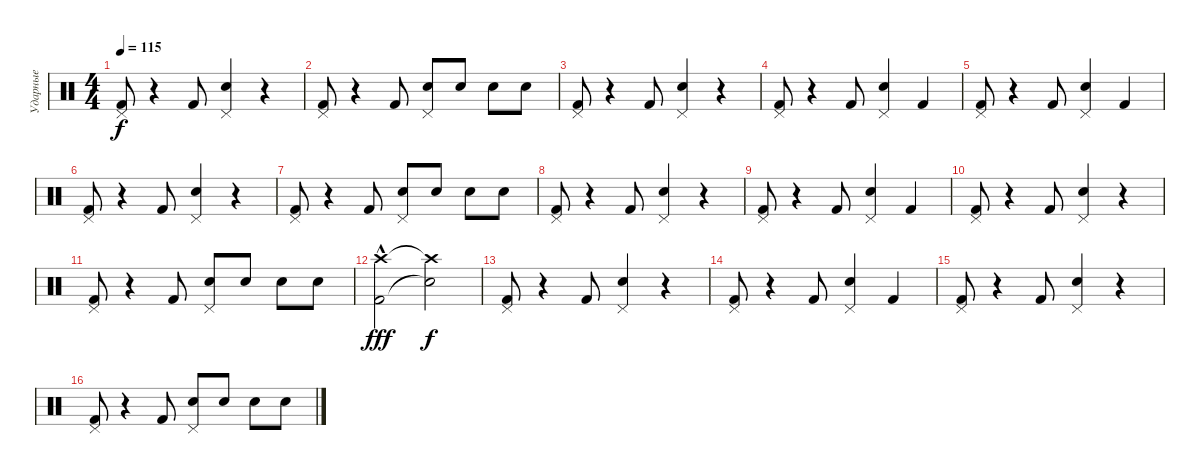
\track ("Ударные" "Ударные") {instrument percussion}
\staff {score}
\articulation defaults
\ts (4 4)
\tempo 115
\clef neutral
\ks c
("Kick (hit) 2" "Pedal Hi-Hat (hit)").8{dy f} r.4 "Kick (hit) 2".8 ("Snare (hit) 2" "Pedal Hi-Hat (hit)").4 r.4 |
("Kick (hit) 2" "Pedal Hi-Hat (hit)").8 r.4 "Kick (hit) 2".8 ("Snare (hit) 2" "Pedal Hi-Hat (hit)").8 "Snare (hit) 2".8 "Snare (hit) 2".8 "Snare (hit) 2".8 |
("Kick (hit) 2" "Pedal Hi-Hat (hit)").8 r.4 "Kick (hit) 2".8 ("Snare (hit) 2" "Pedal Hi-Hat (hit)").4 r.4 |
("Kick (hit) 2" "Pedal Hi-Hat (hit)").8 r.4 "Kick (hit) 2".8 ("Snare (hit) 2" "Pedal Hi-Hat (hit)").4 "Kick (hit) 2".4 |
("Kick (hit) 2" "Pedal Hi-Hat (hit)").8 r.4 "Kick (hit) 2".8 ("Snare (hit) 2" "Pedal Hi-Hat (hit)").4 "Kick (hit) 2".4 |
("Kick (hit) 2" "Pedal Hi-Hat (hit)").8 r.4 "Kick (hit) 2".8 ("Snare (hit) 2" "Pedal Hi-Hat (hit)").4 r.4 |
("Kick (hit) 2" "Pedal Hi-Hat (hit)").8 r.4 "Kick (hit) 2".8 ("Snare (hit) 2" "Pedal Hi-Hat (hit)").8 "Snare (hit) 2".8 "Snare (hit) 2".8 "Snare (hit) 2".8 |
("Kick (hit) 2" "Pedal Hi-Hat (hit)").8 r.4 "Kick (hit) 2".8 ("Snare (hit) 2" "Pedal Hi-Hat (hit)").4 r.4 |
("Kick (hit) 2" "Pedal Hi-Hat (hit)").8 r.4 "Kick (hit) 2".8 ("Snare (hit) 2" "Pedal Hi-Hat (hit)").4 "Kick (hit) 2".4 |
("Kick (hit) 2" "Pedal Hi-Hat (hit)").8 r.4 "Kick (hit) 2".8 ("Snare (hit) 2" "Pedal Hi-Hat (hit)").4 r.4 |
("Kick (hit) 2" "Pedal Hi-Hat (hit)").8 r.4 "Kick (hit) 2".8 ("Snare (hit) 2" "Pedal Hi-Hat (hit)").8 "Snare (hit) 2".8 "Snare (hit) 2".8 "Snare (hit) 2".8 |
("Kick (hit) 2"{hac} "Crash high (hit)").2{dy fff} ("Snare (hit) 2"{t} "Crash high (hit)"{t}).2{dy f} |
("Kick (hit) 2" "Pedal Hi-Hat (hit)").8 r.4 "Kick (hit) 2".8 ("Snare (hit) 2" "Pedal Hi-Hat (hit)").4 r.4 |
("Kick (hit) 2" "Pedal Hi-Hat (hit)").8 r.4 "Kick (hit) 2".8 ("Snare (hit) 2" "Pedal Hi-Hat (hit)").4 "Kick (hit) 2".4 |
("Kick (hit) 2" "Pedal Hi-Hat (hit)").8 r.4 "Kick (hit) 2".8 ("Snare (hit) 2" "Pedal Hi-Hat (hit)").4 r.4 |
("Kick (hit) 2" "Pedal Hi-Hat (hit)").8 r.4 "Kick (hit) 2".8 ("Snare (hit) 2" "Pedal Hi-Hat (hit)").8 "Snare (hit) 2".8 "Snare (hit) 2".8 "Snare (hit) 2".8
